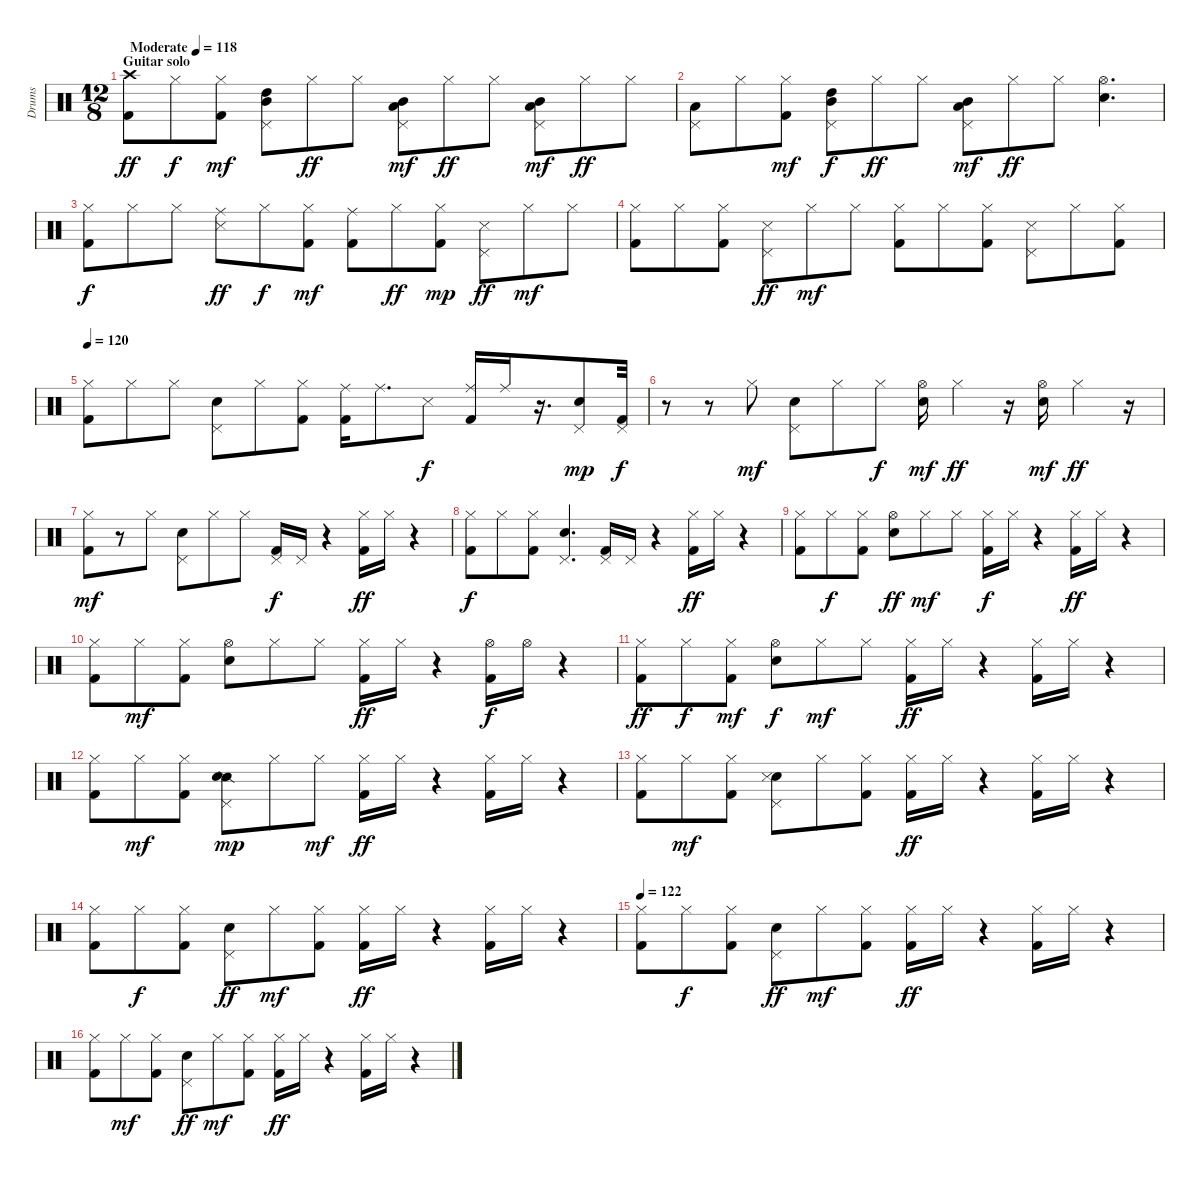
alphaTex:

\track ("Drums" "Drums") {instrument percussion}
\staff {score}
\articulation defaults
\ts (12 8)
\section ("" "Guitar solo")
\tempo (118 "Moderate")
\clef neutral
\ks c
("Crash high (hit)" "Kick (hit) 2").8{dy ff} "Hi-Hat (closed)".8{dy f} ("Hi-Hat (closed)" "Kick (hit) 2").8{dy mf} ("Pedal Hi-Hat (hit)" "Mid Tom (hit)" "High Tom (hit)").8 "Hi-Hat (closed)".8{dy ff} "Hi-Hat (closed)".8 ("Pedal Hi-Hat (hit)" "Mid Tom (hit)" "Low Tom (hit)").8{dy mf} "Hi-Hat (closed)".8{dy ff} "Hi-Hat (closed)".8 ("Pedal Hi-Hat (hit)" "Mid Tom (hit)" "Low Tom (hit)").8{dy mf} "Hi-Hat (closed)".8{dy ff} "Hi-Hat (closed)".8 |
("Pedal Hi-Hat (hit)" "Low Tom (hit)").8 "Hi-Hat (closed)".8 ("Hi-Hat (closed)" "Kick (hit) 2").8{dy mf} ("Pedal Hi-Hat (hit)" "Mid Tom (hit)" "High Tom (hit)").8{dy f} "Hi-Hat (closed)".8{dy ff} "Hi-Hat (closed)".8 ("Pedal Hi-Hat (hit)" "Mid Tom (hit)" "Low Tom (hit)").8{dy mf} "Hi-Hat (closed)".8{dy ff} "Hi-Hat (closed)".8 ("Hi-Hat (open)" "Snare (hit) 2").4{d} |
("Hi-Hat (closed)" "Kick (hit) 2").8{dy f} "Hi-Hat (closed)".8 "Hi-Hat (closed)".8 ("Ride (middle)" "Snare (side stick) 3").8{dy ff} "Hi-Hat (closed)".8{dy f} ("Hi-Hat (closed)" "Kick (hit) 2").8{dy mf} ("Ride (middle)" "Kick (hit) 2").8 "Hi-Hat (closed)".8{dy ff} ("Hi-Hat (closed)" "Kick (hit) 2").8{dy mp} ("Pedal Hi-Hat (hit)" "Snare (side stick) 3").8{dy ff} "Hi-Hat (closed)".8{dy mf} "Hi-Hat (closed)".8 |
("Hi-Hat (closed)" "Kick (hit) 2").8 "Hi-Hat (closed)".8 ("Hi-Hat (closed)" "Kick (hit) 2").8 ("Pedal Hi-Hat (hit)" "Snare (side stick) 3").8{dy ff} "Hi-Hat (closed)".8{dy mf} "Hi-Hat (closed)".8 ("Hi-Hat (closed)" "Kick (hit) 2").8 "Hi-Hat (closed)".8 ("Hi-Hat (closed)" "Kick (hit) 2").8 ("Pedal Hi-Hat (hit)" "Snare (side stick) 3").8 "Hi-Hat (closed)".8 ("Hi-Hat (closed)" "Kick (hit) 2").8 |
\tempo 120
("Hi-Hat (closed)" "Kick (hit) 2").8 "Hi-Hat (closed)".8 "Hi-Hat (closed)".8 ("Pedal Hi-Hat (hit)" "Snare (hit) 2").8 "Hi-Hat (closed)".8 ("Hi-Hat (closed)" "Kick (hit) 2").8 ("Ride (middle)" "Kick (hit) 2").16 "Ride (middle)".8{d} "Snare (side stick) 3".8{dy f} ("Ride (middle)" "Kick (hit) 2").16 "Ride (middle)".16 r.16{d} ("Pedal Hi-Hat (hit)" "Snare (hit) 2").8{dy mp} ("Pedal Hi-Hat (hit)" "Kick (hit) 2").32{dy f} |
r.8 r.8 "Hi-Hat (closed)".8{dy mf} ("Pedal Hi-Hat (hit)" "Snare (hit) 2").8 "Hi-Hat (closed)".8 "Hi-Hat (closed)".8{dy f} ("Hi-Hat (open)" "Snare (hit) 2").16{dy mf} "Hi-Hat (closed)".4{dy ff} r.16 ("Hi-Hat (open)" "Snare (hit) 2").16{dy mf} "Hi-Hat (closed)".4{dy ff} r.16 |
("Hi-Hat (closed)" "Kick (hit) 2").8{dy mf} r.8 "Hi-Hat (closed)".8 ("Pedal Hi-Hat (hit)" "Snare (hit) 2").8 "Hi-Hat (closed)".8 "Hi-Hat (closed)".8 ("Pedal Hi-Hat (hit)" "Kick (hit) 2").16{dy f} "Pedal Hi-Hat (hit)".16 r.4 ("Hi-Hat (closed)" "Kick (hit) 2").16{dy ff} "Hi-Hat (closed)".16 r.4 |
("Hi-Hat (closed)" "Kick (hit) 2").8{dy f} "Hi-Hat (closed)".8 ("Hi-Hat (closed)" "Kick (hit) 2").8 ("Pedal Hi-Hat (hit)" "Snare (hit) 2").4{d} ("Pedal Hi-Hat (hit)" "Kick (hit) 2").16 "Pedal Hi-Hat (hit)".16 r.4 ("Hi-Hat (closed)" "Kick (hit) 2").16{dy ff} "Hi-Hat (closed)".16 r.4 |
("Hi-Hat (closed)" "Kick (hit) 2").8 "Hi-Hat (closed)".8{dy f} ("Hi-Hat (closed)" "Kick (hit) 2").8 ("Hi-Hat (open)" "Snare (hit) 2").8{dy ff} "Hi-Hat (closed)".8{dy mf} "Hi-Hat (closed)".8 ("Hi-Hat (closed)" "Kick (hit) 2").16{dy f} "Hi-Hat (closed)".16 r.4 ("Hi-Hat (closed)" "Kick (hit) 2").16{dy ff} "Hi-Hat (closed)".16 r.4 |
("Hi-Hat (closed)" "Kick (hit) 2").8 "Hi-Hat (closed)".8{dy mf} ("Hi-Hat (closed)" "Kick (hit) 2").8 ("Hi-Hat (open)" "Snare (hit) 2").8 "Hi-Hat (closed)".8 "Hi-Hat (closed)".8 ("Hi-Hat (closed)" "Kick (hit) 2").16{dy ff} "Hi-Hat (closed)".16 r.4 ("Hi-Hat (open)" "Kick (hit) 2").16{dy f} "Hi-Hat (open)".16 r.4 |
("Hi-Hat (closed)" "Kick (hit) 2").8{dy ff} "Hi-Hat (closed)".8{dy f} ("Hi-Hat (closed)" "Kick (hit) 2").8{dy mf} ("Hi-Hat (open)" "Snare (hit) 2").8{dy f} "Hi-Hat (closed)".8{dy mf} "Hi-Hat (closed)".8 ("Hi-Hat (closed)" "Kick (hit) 2").16{dy ff} "Hi-Hat (closed)".16 r.4 ("Hi-Hat (closed)" "Kick (hit) 2").16 "Hi-Hat (closed)".16 r.4 |
("Hi-Hat (closed)" "Kick (hit) 2").8 "Hi-Hat (closed)".8{dy mf} ("Hi-Hat (closed)" "Kick (hit) 2").8 ("Snare (side stick) 2" "Pedal Hi-Hat (hit)" "Snare (hit) 2").8{dy mp} "Hi-Hat (closed)".8 "Hi-Hat (closed)".8{dy mf} ("Hi-Hat (closed)" "Kick (hit) 2").16{dy ff} "Hi-Hat (closed)".16 r.4 ("Hi-Hat (closed)" "Kick (hit) 2").16 "Hi-Hat (closed)".16 r.4 |
("Hi-Hat (closed)" "Kick (hit) 2").8 "Hi-Hat (closed)".8{dy mf} ("Hi-Hat (closed)" "Kick (hit) 2").8 ("Pedal Hi-Hat (hit)" "Snare (hit) 2" "Snare (side stick) 3").8 "Hi-Hat (closed)".8 ("Hi-Hat (closed)" "Kick (hit) 2").8 ("Hi-Hat (closed)" "Kick (hit) 2").16{dy ff} "Hi-Hat (closed)".16 r.4 ("Hi-Hat (closed)" "Kick (hit) 2").16 "Hi-Hat (closed)".16 r.4 |
("Hi-Hat (closed)" "Kick (hit) 2").8 "Hi-Hat (closed)".8{dy f} ("Hi-Hat (closed)" "Kick (hit) 2").8 ("Pedal Hi-Hat (hit)" "Snare (hit) 2").8{dy ff} "Hi-Hat (closed)".8{dy mf} ("Hi-Hat (closed)" "Kick (hit) 2").8 ("Hi-Hat (closed)" "Kick (hit) 2").16{dy ff} "Hi-Hat (closed)".16 r.4 ("Hi-Hat (closed)" "Kick (hit) 2").16 "Hi-Hat (closed)".16 r.4 |
\tempo 122
("Hi-Hat (closed)" "Kick (hit) 2").8 "Hi-Hat (closed)".8{dy f} ("Hi-Hat (closed)" "Kick (hit) 2").8 ("Pedal Hi-Hat (hit)" "Snare (hit) 2").8{dy ff} "Hi-Hat (closed)".8{dy mf} ("Hi-Hat (closed)" "Kick (hit) 2").8 ("Hi-Hat (closed)" "Kick (hit) 2").16{dy ff} "Hi-Hat (closed)".16 r.4 ("Hi-Hat (closed)" "Kick (hit) 2").16 "Hi-Hat (closed)".16 r.4 |
("Hi-Hat (closed)" "Kick (hit) 2").8 "Hi-Hat (closed)".8{dy mf} ("Hi-Hat (closed)" "Kick (hit) 2").8 ("Pedal Hi-Hat (hit)" "Snare (hit) 2").8{dy ff} "Hi-Hat (closed)".8{dy mf} ("Hi-Hat (closed)" "Kick (hit) 2").8 ("Hi-Hat (closed)" "Kick (hit) 2").16{dy ff} "Hi-Hat (closed)".16 r.4 ("Hi-Hat (closed)" "Kick (hit) 2").16 "Hi-Hat (closed)".16 r.4
